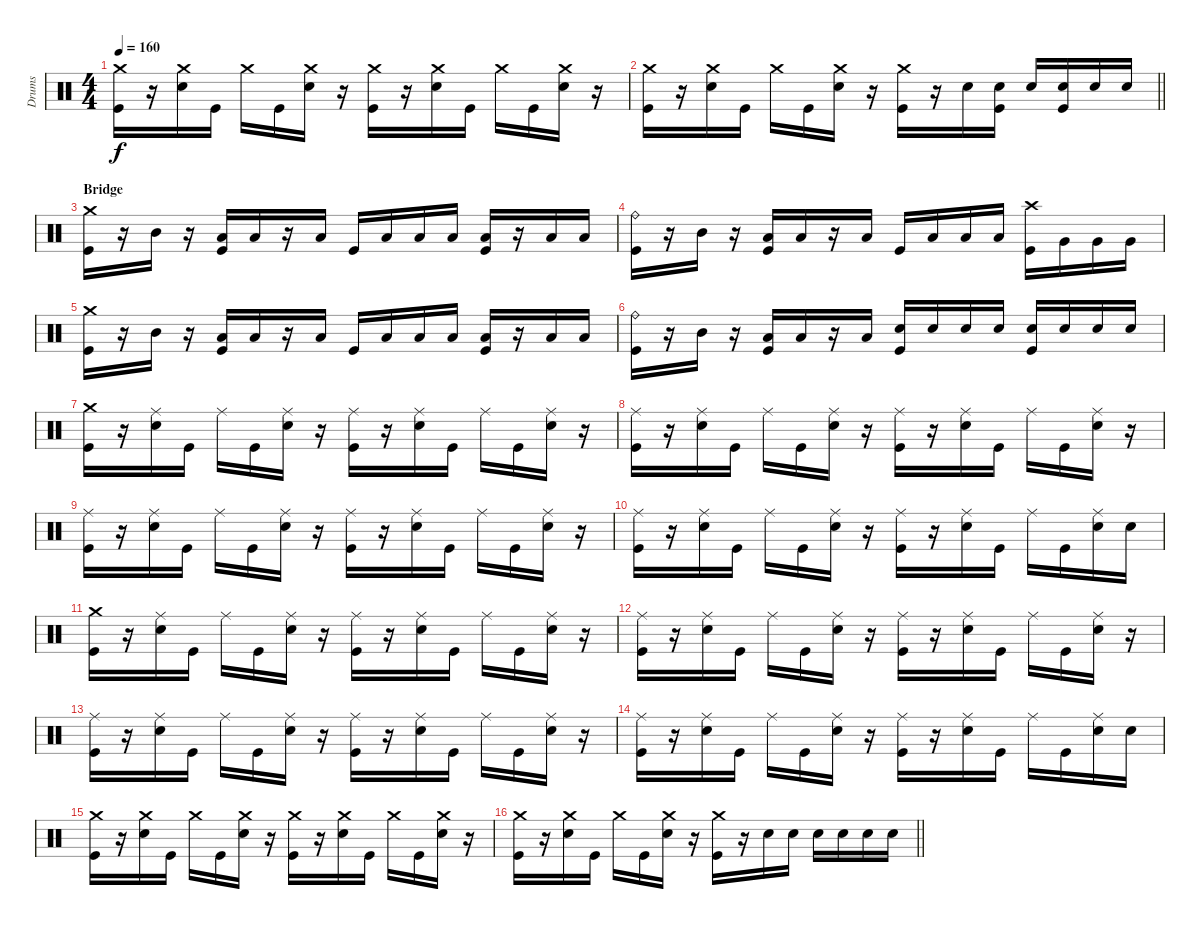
\track ("Drums" "Drums") {instrument percussion}
\staff {score}
\articulation defaults
\ts (4 4)
\tempo 160
\clef neutral
\ks c
("Crash medium (hit)" "Kick (hit)").16{dy f} r.16 ("Crash medium (hit)" "Electric Snare (hit)").16 "Kick (hit)".16 "Crash medium (hit)".16 "Kick (hit)".16 ("Crash medium (hit)" "Electric Snare (hit)").16 r.16 ("Crash medium (hit)" "Kick (hit)").16 r.16 ("Crash medium (hit)" "Electric Snare (hit)").16 "Kick (hit)".16 "Crash medium (hit)".16 "Kick (hit)".16 ("Crash medium (hit)" "Electric Snare (hit)").16 r.16 |
\barLineRight lightlight
("Crash medium (hit)" "Kick (hit)").16 r.16 ("Crash medium (hit)" "Electric Snare (hit)").16 "Kick (hit)".16 "Crash medium (hit)".16 "Kick (hit)".16 ("Crash medium (hit)" "Electric Snare (hit)").16 r.16 ("Crash medium (hit)" "Kick (hit)").16 r.16 "Electric Snare (hit)".16 ("Electric Snare (hit)" "Kick (hit)").16 "Electric Snare (hit)".16 ("Electric Snare (hit)" "Kick (hit)").16 "Electric Snare (hit)".16 "Electric Snare (hit)".16 |
\section ("" "Bridge")
("Crash medium (hit)" "Kick (hit)").16 r.16 "Mid Tom (hit)".16 r.16 ("Low Tom (hit)" "Kick (hit)").16 "Low Tom (hit)".16 r.16 "Low Tom (hit)".16 "Kick (hit)".16 "Low Tom (hit)".16 "Low Tom (hit)".16 "Low Tom (hit)".16 ("Low Tom (hit)" "Kick (hit)").16 r.16 "Low Tom (hit)".16 "Low Tom (hit)".16 |
("Ride (bell)" "Kick (hit)").16 r.16 "Mid Tom (hit)".16 r.16 ("Low Tom (hit)" "Kick (hit)").16 "Low Tom (hit)".16 r.16 "Low Tom (hit)".16 "Kick (hit)".16 "Low Tom (hit)".16 "Low Tom (hit)".16 "Low Tom (hit)".16 ("Crash high (hit)" "Kick (hit)").16 "Very Low Tom (hit)".16 "Very Low Tom (hit)".16 "Very Low Tom (hit)".16 |
("Crash medium (hit)" "Kick (hit)").16 r.16 "Mid Tom (hit)".16 r.16 ("Low Tom (hit)" "Kick (hit)").16 "Low Tom (hit)".16 r.16 "Low Tom (hit)".16 "Kick (hit)".16 "Low Tom (hit)".16 "Low Tom (hit)".16 "Low Tom (hit)".16 ("Low Tom (hit)" "Kick (hit)").16 r.16 "Low Tom (hit)".16 "Low Tom (hit)".16 |
("Ride (bell)" "Kick (hit)").16 r.16 "Mid Tom (hit)".16 r.16 ("Low Tom (hit)" "Kick (hit)").16 "Low Tom (hit)".16 r.16 "Low Tom (hit)".16 ("Electric Snare (hit)" "Kick (hit)").16 "Electric Snare (hit)".16 "Electric Snare (hit)".16 "Electric Snare (hit)".16 ("Electric Snare (hit)" "Kick (hit)").16 "Electric Snare (hit)".16 "Electric Snare (hit)".16 "Electric Snare (hit)".16 |
("Crash medium (hit)" "Kick (hit)").16 r.16 ("Ride (middle)" "Electric Snare (hit)").16 "Kick (hit)".16 "Ride (middle)".16 "Kick (hit)".16 ("Ride (middle)" "Electric Snare (hit)").16 r.16 ("Ride (middle)" "Kick (hit)").16 r.16 ("Ride (middle)" "Electric Snare (hit)").16 "Kick (hit)".16 "Ride (middle)".16 "Kick (hit)".16 ("Ride (middle)" "Electric Snare (hit)").16 r.16 |
("Ride (middle)" "Kick (hit)").16 r.16 ("Ride (middle)" "Electric Snare (hit)").16 "Kick (hit)".16 "Ride (middle)".16 "Kick (hit)".16 ("Ride (middle)" "Electric Snare (hit)").16 r.16 ("Ride (middle)" "Kick (hit)").16 r.16 ("Ride (middle)" "Electric Snare (hit)").16 "Kick (hit)".16 "Ride (middle)".16 "Kick (hit)".16 ("Ride (middle)" "Electric Snare (hit)").16 r.16 |
("Ride (middle)" "Kick (hit)").16 r.16 ("Ride (middle)" "Electric Snare (hit)").16 "Kick (hit)".16 "Ride (middle)".16 "Kick (hit)".16 ("Ride (middle)" "Electric Snare (hit)").16 r.16 ("Ride (middle)" "Kick (hit)").16 r.16 ("Ride (middle)" "Electric Snare (hit)").16 "Kick (hit)".16 "Ride (middle)".16 "Kick (hit)".16 ("Ride (middle)" "Electric Snare (hit)").16 r.16 |
("Ride (middle)" "Kick (hit)").16 r.16 ("Ride (middle)" "Electric Snare (hit)").16 "Kick (hit)".16 "Ride (middle)".16 "Kick (hit)".16 ("Ride (middle)" "Electric Snare (hit)").16 r.16 ("Ride (middle)" "Kick (hit)").16 r.16 ("Ride (middle)" "Electric Snare (hit)").16 "Kick (hit)".16 "Ride (middle)".16 "Kick (hit)".16 ("Ride (middle)" "Electric Snare (hit)").16 "Electric Snare (hit)".16 |
("Crash medium (hit)" "Kick (hit)").16 r.16 ("Ride (middle)" "Electric Snare (hit)").16 "Kick (hit)".16 "Ride (middle)".16 "Kick (hit)".16 ("Ride (middle)" "Electric Snare (hit)").16 r.16 ("Ride (middle)" "Kick (hit)").16 r.16 ("Ride (middle)" "Electric Snare (hit)").16 "Kick (hit)".16 "Ride (middle)".16 "Kick (hit)".16 ("Ride (middle)" "Electric Snare (hit)").16 r.16 |
("Ride (middle)" "Kick (hit)").16 r.16 ("Ride (middle)" "Electric Snare (hit)").16 "Kick (hit)".16 "Ride (middle)".16 "Kick (hit)".16 ("Ride (middle)" "Electric Snare (hit)").16 r.16 ("Ride (middle)" "Kick (hit)").16 r.16 ("Ride (middle)" "Electric Snare (hit)").16 "Kick (hit)".16 "Ride (middle)".16 "Kick (hit)".16 ("Ride (middle)" "Electric Snare (hit)").16 r.16 |
("Ride (middle)" "Kick (hit)").16 r.16 ("Ride (middle)" "Electric Snare (hit)").16 "Kick (hit)".16 "Ride (middle)".16 "Kick (hit)".16 ("Ride (middle)" "Electric Snare (hit)").16 r.16 ("Ride (middle)" "Kick (hit)").16 r.16 ("Ride (middle)" "Electric Snare (hit)").16 "Kick (hit)".16 "Ride (middle)".16 "Kick (hit)".16 ("Ride (middle)" "Electric Snare (hit)").16 r.16 |
("Ride (middle)" "Kick (hit)").16 r.16 ("Ride (middle)" "Electric Snare (hit)").16 "Kick (hit)".16 "Ride (middle)".16 "Kick (hit)".16 ("Ride (middle)" "Electric Snare (hit)").16 r.16 ("Ride (middle)" "Kick (hit)").16 r.16 ("Ride (middle)" "Electric Snare (hit)").16 "Kick (hit)".16 "Ride (middle)".16 "Kick (hit)".16 ("Ride (middle)" "Electric Snare (hit)").16 "Electric Snare (hit)".16 |
("Crash medium (hit)" "Kick (hit)").16 r.16 ("Crash medium (hit)" "Electric Snare (hit)").16 "Kick (hit)".16 "Crash medium (hit)".16 "Kick (hit)".16 ("Crash medium (hit)" "Electric Snare (hit)").16 r.16 ("Crash medium (hit)" "Kick (hit)").16 r.16 ("Crash medium (hit)" "Electric Snare (hit)").16 "Kick (hit)".16 "Crash medium (hit)".16 "Kick (hit)".16 ("Crash medium (hit)" "Electric Snare (hit)").16 r.16 |
\barLineRight lightlight
("Crash medium (hit)" "Kick (hit)").16 r.16 ("Crash medium (hit)" "Electric Snare (hit)").16 "Kick (hit)".16 "Crash medium (hit)".16 "Kick (hit)".16 ("Crash medium (hit)" "Electric Snare (hit)").16 r.16 ("Crash medium (hit)" "Kick (hit)").16 r.16 "Electric Snare (hit)".16 "Electric Snare (hit)".16 "Electric Snare (hit)".16 "Electric Snare (hit)".16 "Electric Snare (hit)".16 "Electric Snare (hit)".16
